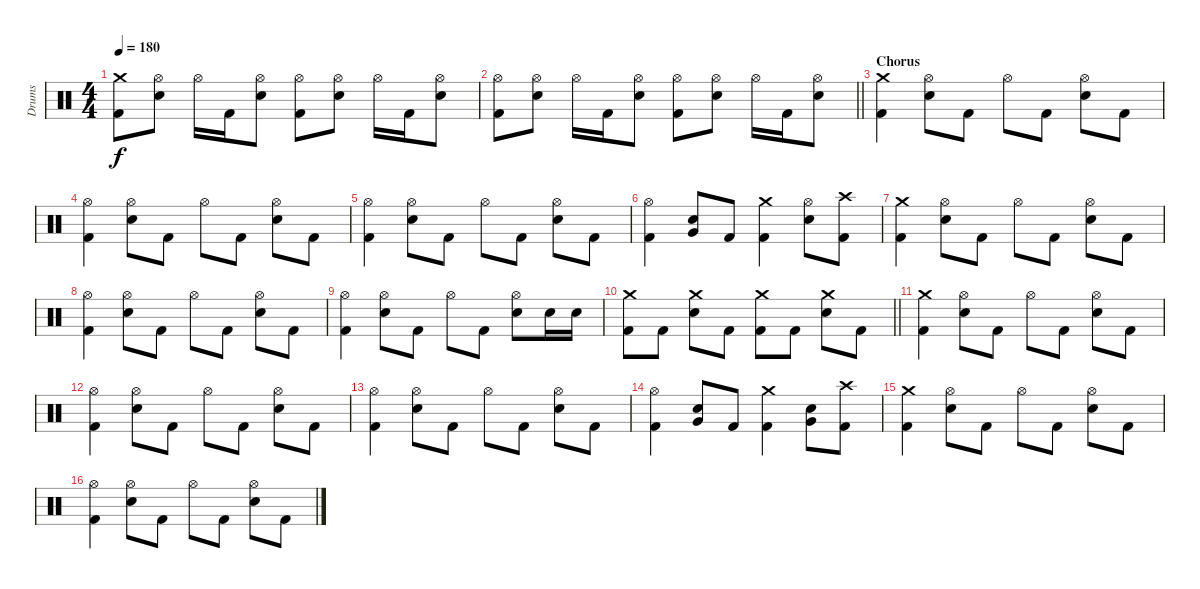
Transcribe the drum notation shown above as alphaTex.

\track ("Drums" "Drums") {instrument percussion}
\staff {score}
\articulation defaults
\ts (4 4)
\tempo 180
\clef neutral
\ks c
("Crash medium (hit)" "Kick (hit) 2").8{dy f} ("Hi-Hat (open)" "Electric Snare (hit)").8 "Hi-Hat (open)".16 "Kick (hit) 2".16 ("Hi-Hat (open)" "Electric Snare (hit)").8 ("Hi-Hat (open)" "Kick (hit) 2").8 ("Hi-Hat (open)" "Electric Snare (hit)").8 "Hi-Hat (open)".16 "Kick (hit) 2".16 ("Hi-Hat (open)" "Electric Snare (hit)").8 |
\barLineRight lightlight
("Hi-Hat (open)" "Kick (hit) 2").8 ("Hi-Hat (open)" "Electric Snare (hit)").8 "Hi-Hat (open)".16 "Kick (hit) 2".16 ("Hi-Hat (open)" "Electric Snare (hit)").8 ("Hi-Hat (open)" "Kick (hit) 2").8 ("Hi-Hat (open)" "Electric Snare (hit)").8 "Hi-Hat (open)".16 "Kick (hit) 2".16 ("Hi-Hat (open)" "Electric Snare (hit)").8 |
\section ("" "Chorus")
("Crash medium (hit)" "Kick (hit) 2").4 ("Hi-Hat (open)" "Electric Snare (hit)").8 "Kick (hit) 2".8 "Hi-Hat (open)".8 "Kick (hit) 2".8 ("Hi-Hat (open)" "Electric Snare (hit)").8 "Kick (hit) 2".8 |
("Hi-Hat (open)" "Kick (hit) 2").4 ("Hi-Hat (open)" "Electric Snare (hit)").8 "Kick (hit) 2".8 "Hi-Hat (open)".8 "Kick (hit) 2".8 ("Hi-Hat (open)" "Electric Snare (hit)").8 "Kick (hit) 2".8 |
("Hi-Hat (open)" "Kick (hit) 2").4 ("Hi-Hat (open)" "Electric Snare (hit)").8 "Kick (hit) 2".8 "Hi-Hat (open)".8 "Kick (hit) 2".8 ("Hi-Hat (open)" "Electric Snare (hit)").8 "Kick (hit) 2".8 |
("Hi-Hat (open)" "Kick (hit) 2").4 ("Very Low Tom (hit)" "Electric Snare (hit)").8 "Kick (hit) 2".8 ("Crash medium (hit)" "Kick (hit) 2").4 ("Hi-Hat (open)" "Electric Snare (hit)").8 ("Crash high (hit)" "Kick (hit) 2").8 |
("Crash medium (hit)" "Kick (hit) 2").4 ("Hi-Hat (open)" "Electric Snare (hit)").8 "Kick (hit) 2".8 "Hi-Hat (open)".8 "Kick (hit) 2".8 ("Hi-Hat (open)" "Electric Snare (hit)").8 "Kick (hit) 2".8 |
("Hi-Hat (open)" "Kick (hit) 2").4 ("Hi-Hat (open)" "Electric Snare (hit)").8 "Kick (hit) 2".8 "Hi-Hat (open)".8 "Kick (hit) 2".8 ("Hi-Hat (open)" "Electric Snare (hit)").8 "Kick (hit) 2".8 |
("Hi-Hat (open)" "Kick (hit) 2").4 ("Hi-Hat (open)" "Electric Snare (hit)").8 "Kick (hit) 2".8 "Hi-Hat (open)".8 "Kick (hit) 2".8 ("Hi-Hat (open)" "Electric Snare (hit)").8 "Electric Snare (hit)".16 "Electric Snare (hit)".16 |
\barLineRight lightlight
("Crash medium (hit)" "Kick (hit) 2").8 "Kick (hit) 2".8 ("Crash medium (hit)" "Electric Snare (hit)").8 "Kick (hit) 2".8 ("Crash medium (hit)" "Kick (hit) 2").8 "Kick (hit) 2".8 ("Crash medium (hit)" "Electric Snare (hit)").8 "Kick (hit) 2".8 |
("Crash medium (hit)" "Kick (hit) 2").4 ("Hi-Hat (open)" "Electric Snare (hit)").8 "Kick (hit) 2".8 "Hi-Hat (open)".8 "Kick (hit) 2".8 ("Hi-Hat (open)" "Electric Snare (hit)").8 "Kick (hit) 2".8 |
("Hi-Hat (open)" "Kick (hit) 2").4 ("Hi-Hat (open)" "Electric Snare (hit)").8 "Kick (hit) 2".8 "Hi-Hat (open)".8 "Kick (hit) 2".8 ("Hi-Hat (open)" "Electric Snare (hit)").8 "Kick (hit) 2".8 |
("Hi-Hat (open)" "Kick (hit) 2").4 ("Hi-Hat (open)" "Electric Snare (hit)").8 "Kick (hit) 2".8 "Hi-Hat (open)".8 "Kick (hit) 2".8 ("Hi-Hat (open)" "Electric Snare (hit)").8 "Kick (hit) 2".8 |
("Hi-Hat (open)" "Kick (hit) 2").4 ("Very Low Tom (hit)" "Electric Snare (hit)").8 "Kick (hit) 2".8 ("Crash medium (hit)" "Kick (hit) 2").4 ("Very Low Tom (hit)" "Electric Snare (hit)").8 ("Crash high (hit)" "Kick (hit) 2").8 |
("Crash medium (hit)" "Kick (hit) 2").4 ("Hi-Hat (open)" "Electric Snare (hit)").8 "Kick (hit) 2".8 "Hi-Hat (open)".8 "Kick (hit) 2".8 ("Hi-Hat (open)" "Electric Snare (hit)").8 "Kick (hit) 2".8 |
("Hi-Hat (open)" "Kick (hit) 2").4 ("Hi-Hat (open)" "Electric Snare (hit)").8 "Kick (hit) 2".8 "Hi-Hat (open)".8 "Kick (hit) 2".8 ("Hi-Hat (open)" "Electric Snare (hit)").8 "Kick (hit) 2".8
